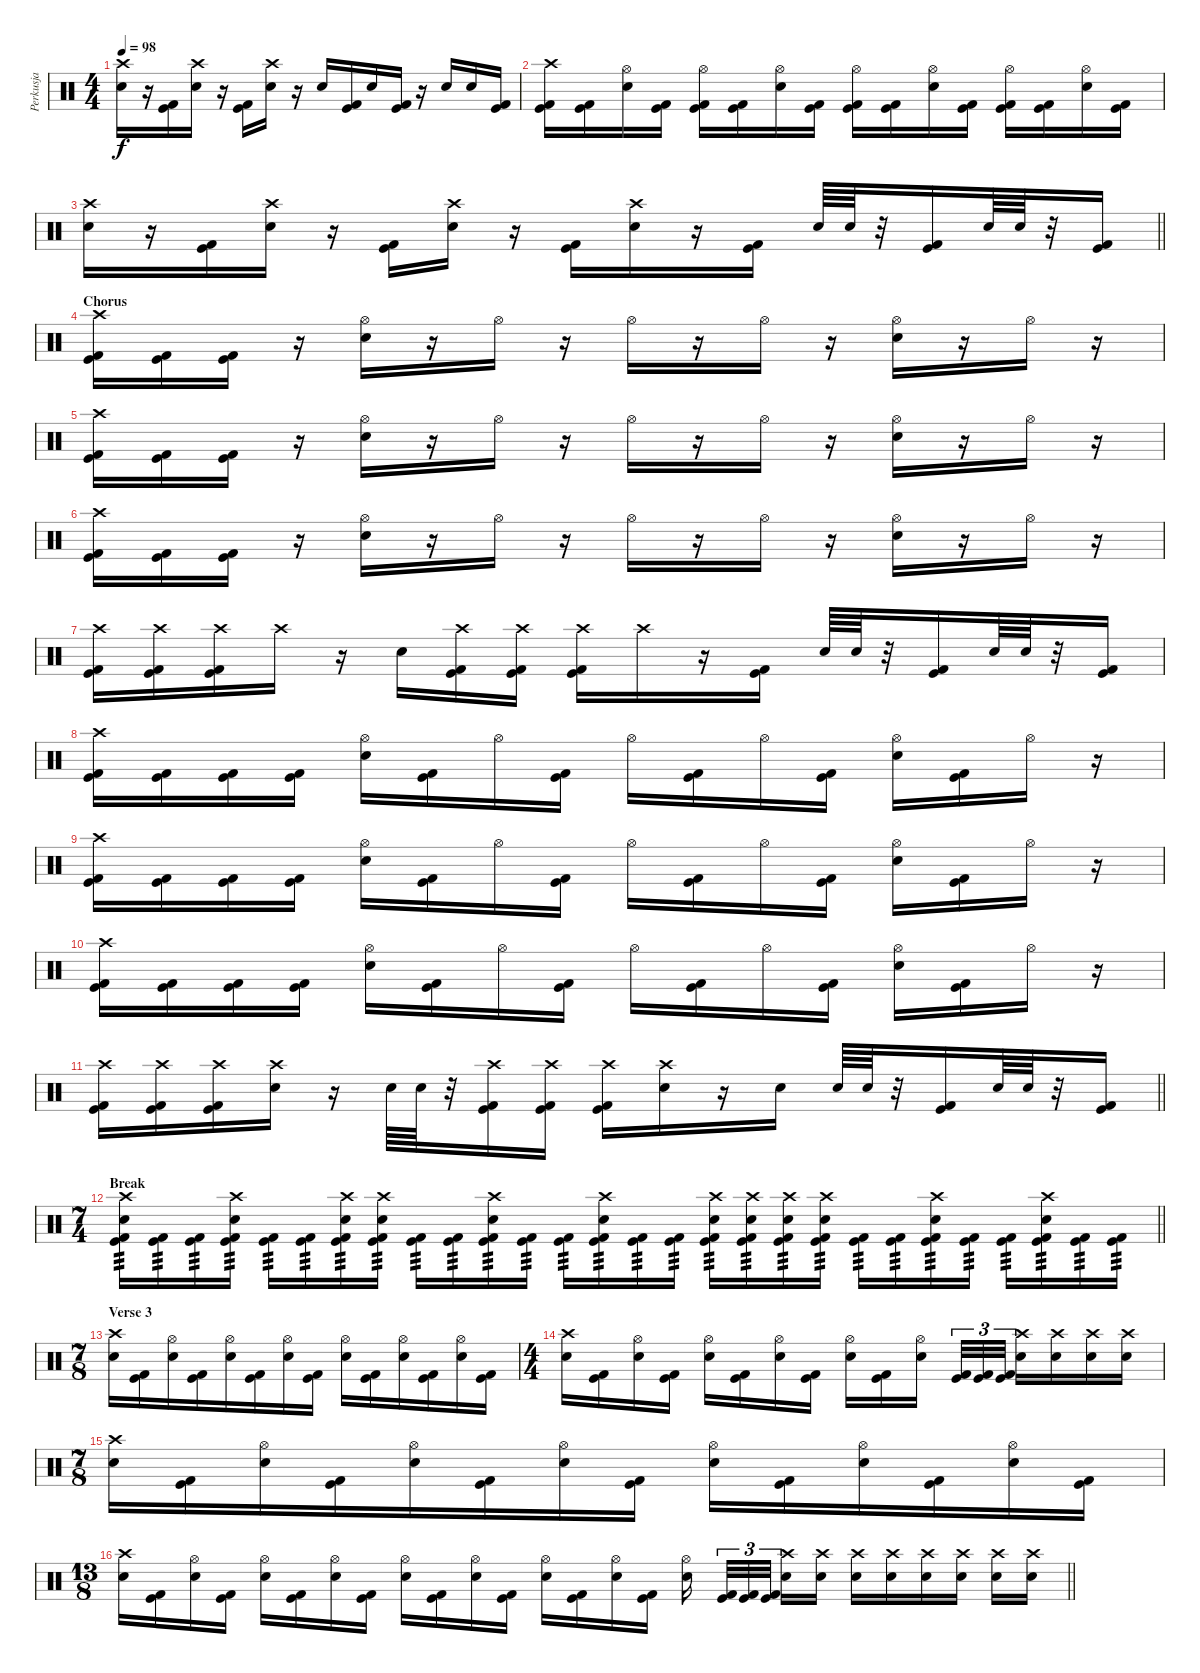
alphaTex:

\track ("Perkusja" "Perkusja") {instrument percussion}
\staff {score}
\articulation defaults
\ts (4 4)
\tempo 98
\clef neutral
\ks c
("Crash high (hit)" "Electric Snare (hit)").16{dy f} r.16 ("Kick (hit)" "Kick (hit) 2").16 ("Crash high (hit)" "Electric Snare (hit)").16 r.16 ("Kick (hit)" "Kick (hit) 2").16 ("Crash high (hit)" "Electric Snare (hit)").16 r.16 "Electric Snare (hit)".16 ("Kick (hit)" "Kick (hit) 2").16 "Electric Snare (hit)".16 ("Kick (hit)" "Kick (hit) 2").16 r.16 "Electric Snare (hit)".16 "Electric Snare (hit)".16 ("Kick (hit)" "Kick (hit) 2").16 |
("Crash high (hit)" "Kick (hit)" "Kick (hit) 2").16 ("Kick (hit)" "Kick (hit) 2").16 ("Hi-Hat (open)" "Electric Snare (hit)").16 ("Kick (hit)" "Kick (hit) 2").16 ("Hi-Hat (open)" "Kick (hit)" "Kick (hit) 2").16 ("Kick (hit)" "Kick (hit) 2").16 ("Hi-Hat (open)" "Electric Snare (hit)").16 ("Kick (hit)" "Kick (hit) 2").16 ("Hi-Hat (open)" "Kick (hit)" "Kick (hit) 2").16 ("Kick (hit)" "Kick (hit) 2").16 ("Hi-Hat (open)" "Electric Snare (hit)").16 ("Kick (hit)" "Kick (hit) 2").16 ("Hi-Hat (open)" "Kick (hit)" "Kick (hit) 2").16 ("Kick (hit)" "Kick (hit) 2").16 ("Hi-Hat (open)" "Electric Snare (hit)").16 ("Kick (hit)" "Kick (hit) 2").16 |
\barLineRight lightlight
("Crash high (hit)" "Electric Snare (hit)").16 r.16 ("Kick (hit)" "Kick (hit) 2").16 ("Crash high (hit)" "Electric Snare (hit)").16 r.16 ("Kick (hit)" "Kick (hit) 2").16 ("Crash high (hit)" "Electric Snare (hit)").16 r.16 ("Kick (hit)" "Kick (hit) 2").16 ("Crash high (hit)" "Electric Snare (hit)").16 r.16 ("Kick (hit)" "Kick (hit) 2").16 "Electric Snare (hit)".64 "Electric Snare (hit)".64 r.32 ("Kick (hit)" "Kick (hit) 2").16 "Electric Snare (hit)".64 "Electric Snare (hit)".64 r.32 ("Kick (hit)" "Kick (hit) 2").16 |
\section ("" "Chorus")
("Crash high (hit)" "Kick (hit)" "Kick (hit) 2").16 ("Kick (hit)" "Kick (hit) 2").16 ("Kick (hit)" "Kick (hit) 2").16 r.16 ("Hi-Hat (open)" "Electric Snare (hit)").16 r.16 "Hi-Hat (open)".16 r.16 "Hi-Hat (open)".16 r.16 "Hi-Hat (open)".16 r.16 ("Hi-Hat (open)" "Electric Snare (hit)").16 r.16 "Hi-Hat (open)".16 r.16 |
("Crash high (hit)" "Kick (hit)" "Kick (hit) 2").16 ("Kick (hit)" "Kick (hit) 2").16 ("Kick (hit)" "Kick (hit) 2").16 r.16 ("Hi-Hat (open)" "Electric Snare (hit)").16 r.16 "Hi-Hat (open)".16 r.16 "Hi-Hat (open)".16 r.16 "Hi-Hat (open)".16 r.16 ("Hi-Hat (open)" "Electric Snare (hit)").16 r.16 "Hi-Hat (open)".16 r.16 |
("Crash high (hit)" "Kick (hit)" "Kick (hit) 2").16 ("Kick (hit)" "Kick (hit) 2").16 ("Kick (hit)" "Kick (hit) 2").16 r.16 ("Hi-Hat (open)" "Electric Snare (hit)").16 r.16 "Hi-Hat (open)".16 r.16 "Hi-Hat (open)".16 r.16 "Hi-Hat (open)".16 r.16 ("Hi-Hat (open)" "Electric Snare (hit)").16 r.16 "Hi-Hat (open)".16 r.16 |
("Crash high (hit)" "Kick (hit)" "Kick (hit) 2").16 ("Crash high (hit)" "Kick (hit)" "Kick (hit) 2").16 ("Crash high (hit)" "Kick (hit)" "Kick (hit) 2").16 "Crash high (hit)".16 r.16 "Electric Snare (hit)".16 ("Crash high (hit)" "Kick (hit)" "Kick (hit) 2").16 ("Crash high (hit)" "Kick (hit)" "Kick (hit) 2").16 ("Crash high (hit)" "Kick (hit)" "Kick (hit) 2").16 "Crash high (hit)".16 r.16 ("Kick (hit)" "Kick (hit) 2").16 "Electric Snare (hit)".64 "Electric Snare (hit)".64 r.32 ("Kick (hit)" "Kick (hit) 2").16 "Electric Snare (hit)".64 "Electric Snare (hit)".64 r.32 ("Kick (hit)" "Kick (hit) 2").16 |
("Crash high (hit)" "Kick (hit)" "Kick (hit) 2").16 ("Kick (hit)" "Kick (hit) 2").16 ("Kick (hit)" "Kick (hit) 2").16 ("Kick (hit)" "Kick (hit) 2").16 ("Hi-Hat (open)" "Electric Snare (hit)").16 ("Kick (hit)" "Kick (hit) 2").16 "Hi-Hat (open)".16 ("Kick (hit)" "Kick (hit) 2").16 "Hi-Hat (open)".16 ("Kick (hit)" "Kick (hit) 2").16 "Hi-Hat (open)".16 ("Kick (hit)" "Kick (hit) 2").16 ("Hi-Hat (open)" "Electric Snare (hit)").16 ("Kick (hit)" "Kick (hit) 2").16 "Hi-Hat (open)".16 r.16 |
("Crash high (hit)" "Kick (hit)" "Kick (hit) 2").16 ("Kick (hit)" "Kick (hit) 2").16 ("Kick (hit)" "Kick (hit) 2").16 ("Kick (hit)" "Kick (hit) 2").16 ("Hi-Hat (open)" "Electric Snare (hit)").16 ("Kick (hit)" "Kick (hit) 2").16 "Hi-Hat (open)".16 ("Kick (hit)" "Kick (hit) 2").16 "Hi-Hat (open)".16 ("Kick (hit)" "Kick (hit) 2").16 "Hi-Hat (open)".16 ("Kick (hit)" "Kick (hit) 2").16 ("Hi-Hat (open)" "Electric Snare (hit)").16 ("Kick (hit)" "Kick (hit) 2").16 "Hi-Hat (open)".16 r.16 |
("Crash high (hit)" "Kick (hit)" "Kick (hit) 2").16 ("Kick (hit)" "Kick (hit) 2").16 ("Kick (hit)" "Kick (hit) 2").16 ("Kick (hit)" "Kick (hit) 2").16 ("Hi-Hat (open)" "Electric Snare (hit)").16 ("Kick (hit)" "Kick (hit) 2").16 "Hi-Hat (open)".16 ("Kick (hit)" "Kick (hit) 2").16 "Hi-Hat (open)".16 ("Kick (hit)" "Kick (hit) 2").16 "Hi-Hat (open)".16 ("Kick (hit)" "Kick (hit) 2").16 ("Hi-Hat (open)" "Electric Snare (hit)").16 ("Kick (hit)" "Kick (hit) 2").16 "Hi-Hat (open)".16 r.16 |
\barLineRight lightlight
("Crash high (hit)" "Kick (hit)" "Kick (hit) 2").16 ("Crash high (hit)" "Kick (hit)" "Kick (hit) 2").16 ("Crash high (hit)" "Kick (hit)" "Kick (hit) 2").16 ("Crash high (hit)" "Electric Snare (hit)").16 r.16 "Electric Snare (hit)".64 "Electric Snare (hit)".64 r.32 ("Crash high (hit)" "Kick (hit)" "Kick (hit) 2").16 ("Crash high (hit)" "Kick (hit)" "Kick (hit) 2").16 ("Crash high (hit)" "Kick (hit)" "Kick (hit) 2").16 ("Crash high (hit)" "Electric Snare (hit)").16 r.16 "Electric Snare (hit)".16 "Electric Snare (hit)".64 "Electric Snare (hit)".64 r.32 ("Kick (hit)" "Kick (hit) 2").16 "Electric Snare (hit)".64 "Electric Snare (hit)".64 r.32 ("Kick (hit)" "Kick (hit) 2").16 |
\ts (7 4)
\section ("" "Break")
\barLineRight lightlight
("Crash high (hit)" "Electric Snare (hit)" "Kick (hit)" "Kick (hit) 2").16{tp 3} ("Kick (hit)" "Kick (hit) 2").16{tp 3} ("Kick (hit)" "Kick (hit) 2").16{tp 3} ("Crash high (hit)" "Electric Snare (hit)" "Kick (hit)" "Kick (hit) 2").16{tp 3} ("Kick (hit)" "Kick (hit) 2").16{tp 3} ("Kick (hit)" "Kick (hit) 2").16{tp 3} ("Crash high (hit)" "Snare (hit) 2" "Kick (hit)" "Kick (hit) 2").16{tp 3} ("Crash high (hit)" "Snare (hit) 2" "Kick (hit)" "Kick (hit) 2").16{tp 3} ("Kick (hit)" "Kick (hit) 2").16{tp 3} ("Kick (hit)" "Kick (hit) 2").16{tp 3} ("Crash high (hit)" "Electric Snare (hit)" "Kick (hit)" "Kick (hit) 2").16{tp 3} ("Kick (hit)" "Kick (hit) 2").16{tp 3} ("Kick (hit)" "Kick (hit) 2").16{tp 3} ("Crash high (hit)" "Electric Snare (hit)" "Kick (hit)" "Kick (hit) 2").16{tp 3} ("Kick (hit)" "Kick (hit) 2").16{tp 3} ("Kick (hit)" "Kick (hit) 2").16{tp 3} ("Crash high (hit)" "Snare (hit) 2" "Kick (hit)" "Kick (hit) 2").16{tp 3} ("Crash high (hit)" "Snare (hit) 2" "Kick (hit)" "Kick (hit) 2").16{tp 3} ("Crash high (hit)" "Snare (hit) 2" "Kick (hit)" "Kick (hit) 2").16{tp 3} ("Crash high (hit)" "Electric Snare (hit)" "Kick (hit)" "Kick (hit) 2").16{tp 3} ("Kick (hit)" "Kick (hit) 2").16{tp 3} ("Kick (hit)" "Kick (hit) 2").16{tp 3} ("Crash high (hit)" "Electric Snare (hit)" "Kick (hit)" "Kick (hit) 2").16{tp 3} ("Kick (hit)" "Kick (hit) 2").16{tp 3} ("Kick (hit)" "Kick (hit) 2").16{tp 3} ("Crash high (hit)" "Electric Snare (hit)" "Kick (hit)" "Kick (hit) 2").16{tp 3} ("Kick (hit)" "Kick (hit) 2").16{tp 3} ("Kick (hit)" "Kick (hit) 2").16{tp 3} |
\ts (7 8)
\section ("" "Verse 3")
("Crash high (hit)" "Electric Snare (hit)").16 ("Kick (hit)" "Kick (hit) 2").16 ("Hi-Hat (open)" "Electric Snare (hit)").16 ("Kick (hit)" "Kick (hit) 2").16 ("Hi-Hat (open)" "Electric Snare (hit)").16 ("Kick (hit)" "Kick (hit) 2").16 ("Hi-Hat (open)" "Electric Snare (hit)").16 ("Kick (hit)" "Kick (hit) 2").16 ("Hi-Hat (open)" "Electric Snare (hit)").16 ("Kick (hit)" "Kick (hit) 2").16 ("Hi-Hat (open)" "Electric Snare (hit)").16 ("Kick (hit)" "Kick (hit) 2").16 ("Hi-Hat (open)" "Electric Snare (hit)").16 ("Kick (hit)" "Kick (hit) 2").16 |
\ts (4 4)
("Crash high (hit)" "Electric Snare (hit)").16 ("Kick (hit)" "Kick (hit) 2").16 ("Hi-Hat (open)" "Electric Snare (hit)").16 ("Kick (hit)" "Kick (hit) 2").16 ("Hi-Hat (open)" "Electric Snare (hit)").16 ("Kick (hit)" "Kick (hit) 2").16 ("Hi-Hat (open)" "Electric Snare (hit)").16 ("Kick (hit)" "Kick (hit) 2").16 ("Hi-Hat (open)" "Electric Snare (hit)").16 ("Kick (hit)" "Kick (hit) 2").16 ("Hi-Hat (open)" "Electric Snare (hit)").16{beam splitsecondary} ("Kick (hit)" "Kick (hit) 2").32{tu (3 2)} ("Kick (hit)" "Kick (hit) 2").32{tu (3 2)} ("Kick (hit)" "Kick (hit) 2").32{tu (3 2)} ("Crash high (hit)" "Electric Snare (hit)").16 ("Crash high (hit)" "Electric Snare (hit)").16 ("Crash high (hit)" "Electric Snare (hit)").16 ("Crash high (hit)" "Electric Snare (hit)").16 |
\ts (7 8)
("Crash high (hit)" "Electric Snare (hit)").16 ("Kick (hit)" "Kick (hit) 2").16 ("Hi-Hat (open)" "Electric Snare (hit)").16 ("Kick (hit)" "Kick (hit) 2").16 ("Hi-Hat (open)" "Electric Snare (hit)").16 ("Kick (hit)" "Kick (hit) 2").16 ("Hi-Hat (open)" "Electric Snare (hit)").16 ("Kick (hit)" "Kick (hit) 2").16 ("Hi-Hat (open)" "Electric Snare (hit)").16 ("Kick (hit)" "Kick (hit) 2").16 ("Hi-Hat (open)" "Electric Snare (hit)").16 ("Kick (hit)" "Kick (hit) 2").16 ("Hi-Hat (open)" "Electric Snare (hit)").16 ("Kick (hit)" "Kick (hit) 2").16 |
\ts (13 8)
\barLineRight lightlight
("Crash high (hit)" "Electric Snare (hit)").16 ("Kick (hit)" "Kick (hit) 2").16 ("Hi-Hat (open)" "Electric Snare (hit)").16 ("Kick (hit)" "Kick (hit) 2").16 ("Hi-Hat (open)" "Electric Snare (hit)").16 ("Kick (hit)" "Kick (hit) 2").16 ("Hi-Hat (open)" "Electric Snare (hit)").16 ("Kick (hit)" "Kick (hit) 2").16 ("Hi-Hat (open)" "Electric Snare (hit)").16 ("Kick (hit)" "Kick (hit) 2").16 ("Hi-Hat (open)" "Electric Snare (hit)").16 ("Kick (hit)" "Kick (hit) 2").16 ("Hi-Hat (open)" "Electric Snare (hit)").16 ("Kick (hit)" "Kick (hit) 2").16 ("Hi-Hat (open)" "Electric Snare (hit)").16 ("Kick (hit)" "Kick (hit) 2").16 ("Hi-Hat (open)" "Electric Snare (hit)").16{beam splitsecondary} ("Kick (hit)" "Kick (hit) 2").32{tu (3 2)} ("Kick (hit)" "Kick (hit) 2").32{tu (3 2)} ("Kick (hit)" "Kick (hit) 2").32{tu (3 2)} ("Crash high (hit)" "Electric Snare (hit)").16 ("Crash high (hit)" "Electric Snare (hit)").16 ("Crash high (hit)" "Electric Snare (hit)").16 ("Crash high (hit)" "Electric Snare (hit)").16 ("Crash high (hit)" "Electric Snare (hit)").16 ("Crash high (hit)" "Electric Snare (hit)").16 ("Crash high (hit)" "Electric Snare (hit)").16 ("Crash high (hit)" "Electric Snare (hit)").16
